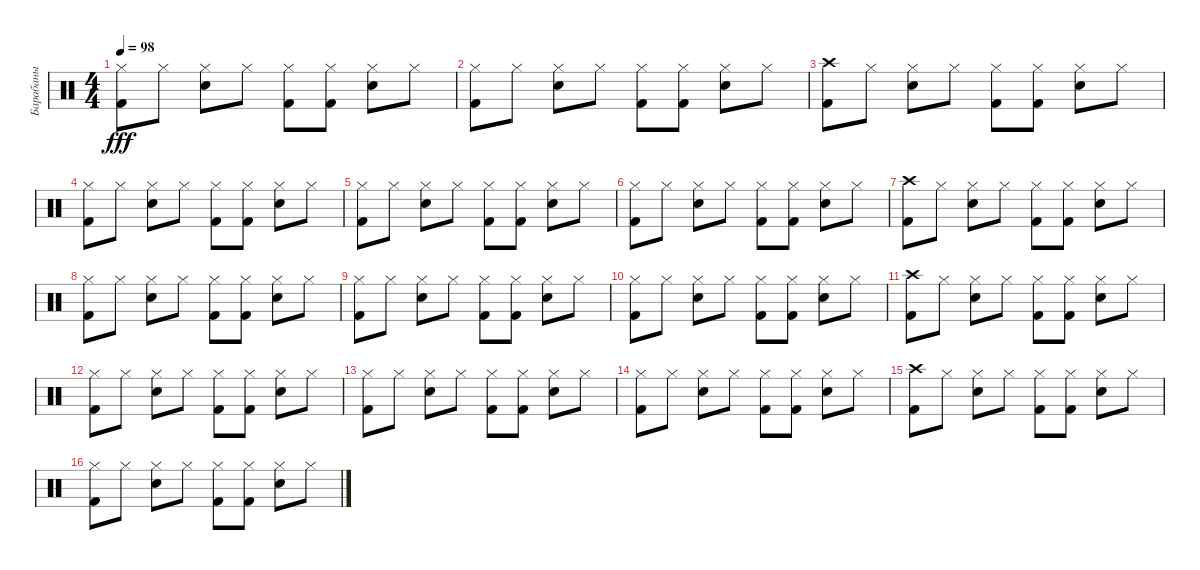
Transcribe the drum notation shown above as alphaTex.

\track ("Барабаны" "Барабаны") {instrument percussion}
\staff {score}
\articulation defaults
\ts (4 4)
\tempo 98
\clef neutral
\ks c
("Hi-Hat (closed)" "Kick (hit) 2").8{dy fff} "Hi-Hat (closed)".8 ("Hi-Hat (closed)" "Snare (hit) 2").8 "Hi-Hat (closed)".8 ("Hi-Hat (closed)" "Kick (hit) 2").8 ("Hi-Hat (closed)" "Kick (hit) 2").8 ("Hi-Hat (closed)" "Snare (hit) 2").8 "Hi-Hat (closed)".8 |
("Hi-Hat (closed)" "Kick (hit) 2").8 "Hi-Hat (closed)".8 ("Hi-Hat (closed)" "Snare (hit) 2").8 "Hi-Hat (closed)".8 ("Hi-Hat (closed)" "Kick (hit) 2").8 ("Hi-Hat (closed)" "Kick (hit) 2").8 ("Hi-Hat (closed)" "Snare (hit) 2").8 "Hi-Hat (closed)".8 |
("Crash high (hit)" "Kick (hit) 2").8 "Hi-Hat (closed)".8 ("Hi-Hat (closed)" "Snare (hit) 2").8 "Hi-Hat (closed)".8 ("Hi-Hat (closed)" "Kick (hit) 2").8 ("Hi-Hat (closed)" "Kick (hit) 2").8 ("Hi-Hat (closed)" "Snare (hit) 2").8 "Hi-Hat (closed)".8 |
("Hi-Hat (closed)" "Kick (hit) 2").8 "Hi-Hat (closed)".8 ("Hi-Hat (closed)" "Snare (hit) 2").8 "Hi-Hat (closed)".8 ("Hi-Hat (closed)" "Kick (hit) 2").8 ("Hi-Hat (closed)" "Kick (hit) 2").8 ("Hi-Hat (closed)" "Snare (hit) 2").8 "Hi-Hat (closed)".8 |
("Hi-Hat (closed)" "Kick (hit) 2").8 "Hi-Hat (closed)".8 ("Hi-Hat (closed)" "Snare (hit) 2").8 "Hi-Hat (closed)".8 ("Hi-Hat (closed)" "Kick (hit) 2").8 ("Hi-Hat (closed)" "Kick (hit) 2").8 ("Hi-Hat (closed)" "Snare (hit) 2").8 "Hi-Hat (closed)".8 |
("Hi-Hat (closed)" "Kick (hit) 2").8 "Hi-Hat (closed)".8 ("Hi-Hat (closed)" "Snare (hit) 2").8 "Hi-Hat (closed)".8 ("Hi-Hat (closed)" "Kick (hit) 2").8 ("Hi-Hat (closed)" "Kick (hit) 2").8 ("Hi-Hat (closed)" "Snare (hit) 2").8 "Hi-Hat (closed)".8 |
("Crash high (hit)" "Kick (hit) 2").8 "Hi-Hat (closed)".8 ("Hi-Hat (closed)" "Snare (hit) 2").8 "Hi-Hat (closed)".8 ("Hi-Hat (closed)" "Kick (hit) 2").8 ("Hi-Hat (closed)" "Kick (hit) 2").8 ("Hi-Hat (closed)" "Snare (hit) 2").8 "Hi-Hat (closed)".8 |
("Hi-Hat (closed)" "Kick (hit) 2").8 "Hi-Hat (closed)".8 ("Hi-Hat (closed)" "Snare (hit) 2").8 "Hi-Hat (closed)".8 ("Hi-Hat (closed)" "Kick (hit) 2").8 ("Hi-Hat (closed)" "Kick (hit) 2").8 ("Hi-Hat (closed)" "Snare (hit) 2").8 "Hi-Hat (closed)".8 |
("Hi-Hat (closed)" "Kick (hit) 2").8 "Hi-Hat (closed)".8 ("Hi-Hat (closed)" "Snare (hit) 2").8 "Hi-Hat (closed)".8 ("Hi-Hat (closed)" "Kick (hit) 2").8 ("Hi-Hat (closed)" "Kick (hit) 2").8 ("Hi-Hat (closed)" "Snare (hit) 2").8 "Hi-Hat (closed)".8 |
("Hi-Hat (closed)" "Kick (hit) 2").8 "Hi-Hat (closed)".8 ("Hi-Hat (closed)" "Snare (hit) 2").8 "Hi-Hat (closed)".8 ("Hi-Hat (closed)" "Kick (hit) 2").8 ("Hi-Hat (closed)" "Kick (hit) 2").8 ("Hi-Hat (closed)" "Snare (hit) 2").8 "Hi-Hat (closed)".8 |
("Crash high (hit)" "Kick (hit) 2").8 "Hi-Hat (closed)".8 ("Hi-Hat (closed)" "Snare (hit) 2").8 "Hi-Hat (closed)".8 ("Hi-Hat (closed)" "Kick (hit) 2").8 ("Hi-Hat (closed)" "Kick (hit) 2").8 ("Hi-Hat (closed)" "Snare (hit) 2").8 "Hi-Hat (closed)".8 |
("Hi-Hat (closed)" "Kick (hit) 2").8 "Hi-Hat (closed)".8 ("Hi-Hat (closed)" "Snare (hit) 2").8 "Hi-Hat (closed)".8 ("Hi-Hat (closed)" "Kick (hit) 2").8 ("Hi-Hat (closed)" "Kick (hit) 2").8 ("Hi-Hat (closed)" "Snare (hit) 2").8 "Hi-Hat (closed)".8 |
("Hi-Hat (closed)" "Kick (hit) 2").8 "Hi-Hat (closed)".8 ("Hi-Hat (closed)" "Snare (hit) 2").8 "Hi-Hat (closed)".8 ("Hi-Hat (closed)" "Kick (hit) 2").8 ("Hi-Hat (closed)" "Kick (hit) 2").8 ("Hi-Hat (closed)" "Snare (hit) 2").8 "Hi-Hat (closed)".8 |
("Hi-Hat (closed)" "Kick (hit) 2").8 "Hi-Hat (closed)".8 ("Hi-Hat (closed)" "Snare (hit) 2").8 "Hi-Hat (closed)".8 ("Hi-Hat (closed)" "Kick (hit) 2").8 ("Hi-Hat (closed)" "Kick (hit) 2").8 ("Hi-Hat (closed)" "Snare (hit) 2").8 "Hi-Hat (closed)".8 |
("Crash high (hit)" "Kick (hit) 2").8 "Hi-Hat (closed)".8 ("Hi-Hat (closed)" "Snare (hit) 2").8 "Hi-Hat (closed)".8 ("Hi-Hat (closed)" "Kick (hit) 2").8 ("Hi-Hat (closed)" "Kick (hit) 2").8 ("Hi-Hat (closed)" "Snare (hit) 2").8 "Hi-Hat (closed)".8 |
("Hi-Hat (closed)" "Kick (hit) 2").8 "Hi-Hat (closed)".8 ("Hi-Hat (closed)" "Snare (hit) 2").8 "Hi-Hat (closed)".8 ("Hi-Hat (closed)" "Kick (hit) 2").8 ("Hi-Hat (closed)" "Kick (hit) 2").8 ("Hi-Hat (closed)" "Snare (hit) 2").8 "Hi-Hat (closed)".8
